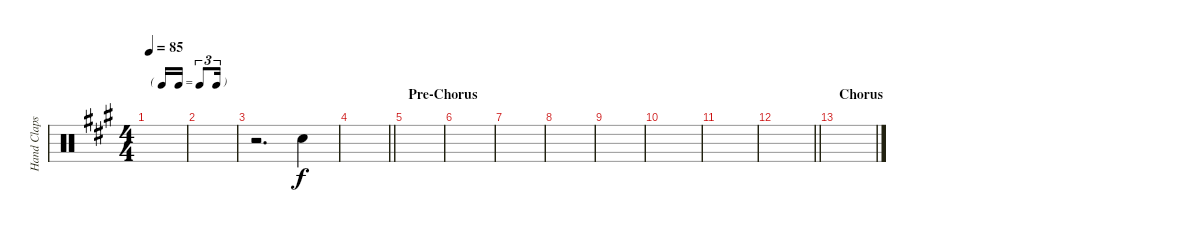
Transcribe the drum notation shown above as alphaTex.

\track ("Hand Claps" "Hand Claps") {instrument percussion}
\staff {score}
\articulation defaults
\ts (4 4)
\tf triplet16th
\tempo 85
\clef neutral
\ks a
|
|
r.2{d} "Hand Clap (hit)".4 |
\barLineRight lightlight
|
\section ("" "Pre-Chorus")
|
|
|
|
|
|
|
\barLineRight lightlight
|
\section ("" "Chorus")
